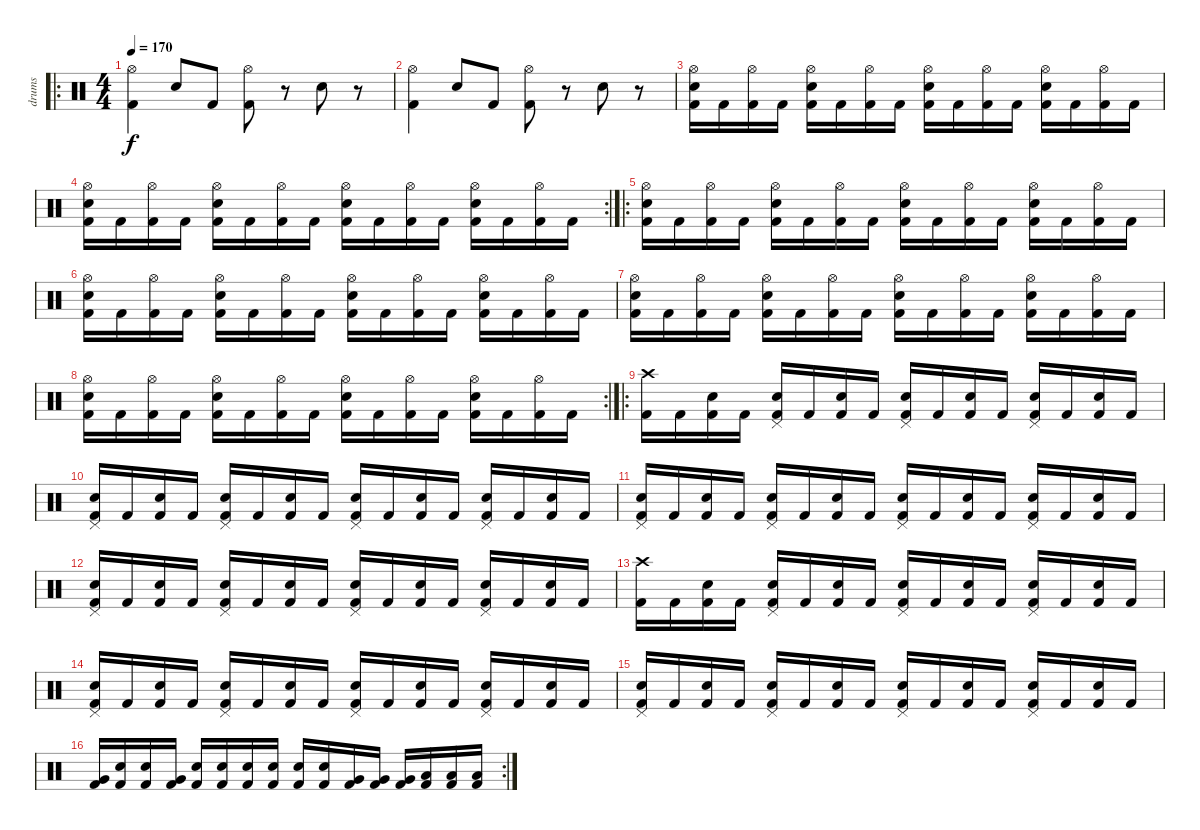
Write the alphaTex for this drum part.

\track ("drums" "drums") {instrument percussion}
\staff {score}
\articulation defaults
\ro
\ts (4 4)
\tempo 170
\clef neutral
\ks c
("Hi-Hat (open)" "Kick (hit) 2").4{dy f} "Electric Snare (hit)".8 "Kick (hit) 2".8 ("Hi-Hat (open)" "Kick (hit) 2").8 r.8 "Electric Snare (hit)".8 r.8 |
("Hi-Hat (open)" "Kick (hit) 2").4 "Electric Snare (hit)".8 "Kick (hit) 2".8 ("Hi-Hat (open)" "Kick (hit) 2").8 r.8 "Electric Snare (hit)".8 r.8 |
("Hi-Hat (open)" "Electric Snare (hit)" "Kick (hit) 2").16 "Kick (hit) 2".16 ("Hi-Hat (open)" "Kick (hit) 2").16 "Kick (hit) 2".16 ("Hi-Hat (open)" "Electric Snare (hit)" "Kick (hit) 2").16 "Kick (hit) 2".16 ("Hi-Hat (open)" "Kick (hit) 2").16 "Kick (hit) 2".16 ("Hi-Hat (open)" "Electric Snare (hit)" "Kick (hit) 2").16 "Kick (hit) 2".16 ("Hi-Hat (open)" "Kick (hit) 2").16 "Kick (hit) 2".16 ("Hi-Hat (open)" "Electric Snare (hit)" "Kick (hit) 2").16 "Kick (hit) 2".16 ("Hi-Hat (open)" "Kick (hit) 2").16 "Kick (hit) 2".16 |
\rc 2
("Hi-Hat (open)" "Electric Snare (hit)" "Kick (hit) 2").16 "Kick (hit) 2".16 ("Hi-Hat (open)" "Kick (hit) 2").16 "Kick (hit) 2".16 ("Hi-Hat (open)" "Electric Snare (hit)" "Kick (hit) 2").16 "Kick (hit) 2".16 ("Hi-Hat (open)" "Kick (hit) 2").16 "Kick (hit) 2".16 ("Hi-Hat (open)" "Electric Snare (hit)" "Kick (hit) 2").16 "Kick (hit) 2".16 ("Hi-Hat (open)" "Kick (hit) 2").16 "Kick (hit) 2".16 ("Hi-Hat (open)" "Electric Snare (hit)" "Kick (hit) 2").16 "Kick (hit) 2".16 ("Hi-Hat (open)" "Kick (hit) 2").16 "Kick (hit) 2".16 |
\ro
("Hi-Hat (open)" "Electric Snare (hit)" "Kick (hit) 2").16 "Kick (hit) 2".16 ("Hi-Hat (open)" "Kick (hit) 2").16 "Kick (hit) 2".16 ("Hi-Hat (open)" "Electric Snare (hit)" "Kick (hit) 2").16 "Kick (hit) 2".16 ("Hi-Hat (open)" "Kick (hit) 2").16 "Kick (hit) 2".16 ("Hi-Hat (open)" "Electric Snare (hit)" "Kick (hit) 2").16 "Kick (hit) 2".16 ("Hi-Hat (open)" "Kick (hit) 2").16 "Kick (hit) 2".16 ("Hi-Hat (open)" "Electric Snare (hit)" "Kick (hit) 2").16 "Kick (hit) 2".16 ("Hi-Hat (open)" "Kick (hit) 2").16 "Kick (hit) 2".16 |
("Hi-Hat (open)" "Electric Snare (hit)" "Kick (hit) 2").16 "Kick (hit) 2".16 ("Hi-Hat (open)" "Kick (hit) 2").16 "Kick (hit) 2".16 ("Hi-Hat (open)" "Electric Snare (hit)" "Kick (hit) 2").16 "Kick (hit) 2".16 ("Hi-Hat (open)" "Kick (hit) 2").16 "Kick (hit) 2".16 ("Hi-Hat (open)" "Electric Snare (hit)" "Kick (hit) 2").16 "Kick (hit) 2".16 ("Hi-Hat (open)" "Kick (hit) 2").16 "Kick (hit) 2".16 ("Hi-Hat (open)" "Electric Snare (hit)" "Kick (hit) 2").16 "Kick (hit) 2".16 ("Hi-Hat (open)" "Kick (hit) 2").16 "Kick (hit) 2".16 |
("Hi-Hat (open)" "Electric Snare (hit)" "Kick (hit) 2").16 "Kick (hit) 2".16 ("Hi-Hat (open)" "Kick (hit) 2").16 "Kick (hit) 2".16 ("Hi-Hat (open)" "Electric Snare (hit)" "Kick (hit) 2").16 "Kick (hit) 2".16 ("Hi-Hat (open)" "Kick (hit) 2").16 "Kick (hit) 2".16 ("Hi-Hat (open)" "Electric Snare (hit)" "Kick (hit) 2").16 "Kick (hit) 2".16 ("Hi-Hat (open)" "Kick (hit) 2").16 "Kick (hit) 2".16 ("Hi-Hat (open)" "Electric Snare (hit)" "Kick (hit) 2").16 "Kick (hit) 2".16 ("Hi-Hat (open)" "Kick (hit) 2").16 "Kick (hit) 2".16 |
\rc 2
("Hi-Hat (open)" "Electric Snare (hit)" "Kick (hit) 2").16 "Kick (hit) 2".16 ("Hi-Hat (open)" "Kick (hit) 2").16 "Kick (hit) 2".16 ("Hi-Hat (open)" "Electric Snare (hit)" "Kick (hit) 2").16 "Kick (hit) 2".16 ("Hi-Hat (open)" "Kick (hit) 2").16 "Kick (hit) 2".16 ("Hi-Hat (open)" "Electric Snare (hit)" "Kick (hit) 2").16 "Kick (hit) 2".16 ("Hi-Hat (open)" "Kick (hit) 2").16 "Kick (hit) 2".16 ("Hi-Hat (open)" "Electric Snare (hit)" "Kick (hit) 2").16 "Kick (hit) 2".16 ("Hi-Hat (open)" "Kick (hit) 2").16 "Kick (hit) 2".16 |
\ro
("Crash high (hit)" "Kick (hit) 2").16 "Kick (hit) 2".16 ("Electric Snare (hit)" "Kick (hit) 2").16 "Kick (hit) 2".16 ("Pedal Hi-Hat (hit)" "Electric Snare (hit)" "Kick (hit) 2").16 "Kick (hit) 2".16 ("Electric Snare (hit)" "Kick (hit) 2").16 "Kick (hit) 2".16 ("Pedal Hi-Hat (hit)" "Electric Snare (hit)" "Kick (hit) 2").16 "Kick (hit) 2".16 ("Electric Snare (hit)" "Kick (hit) 2").16 "Kick (hit) 2".16 ("Pedal Hi-Hat (hit)" "Electric Snare (hit)" "Kick (hit) 2").16 "Kick (hit) 2".16 ("Electric Snare (hit)" "Kick (hit) 2").16 "Kick (hit) 2".16 |
("Pedal Hi-Hat (hit)" "Electric Snare (hit)" "Kick (hit) 2").16 "Kick (hit) 2".16 ("Electric Snare (hit)" "Kick (hit) 2").16 "Kick (hit) 2".16 ("Pedal Hi-Hat (hit)" "Electric Snare (hit)" "Kick (hit) 2").16 "Kick (hit) 2".16 ("Electric Snare (hit)" "Kick (hit) 2").16 "Kick (hit) 2".16 ("Pedal Hi-Hat (hit)" "Electric Snare (hit)" "Kick (hit) 2").16 "Kick (hit) 2".16 ("Electric Snare (hit)" "Kick (hit) 2").16 "Kick (hit) 2".16 ("Pedal Hi-Hat (hit)" "Electric Snare (hit)" "Kick (hit) 2").16 "Kick (hit) 2".16 ("Electric Snare (hit)" "Kick (hit) 2").16 "Kick (hit) 2".16 |
("Pedal Hi-Hat (hit)" "Electric Snare (hit)" "Kick (hit) 2").16 "Kick (hit) 2".16 ("Electric Snare (hit)" "Kick (hit) 2").16 "Kick (hit) 2".16 ("Pedal Hi-Hat (hit)" "Electric Snare (hit)" "Kick (hit) 2").16 "Kick (hit) 2".16 ("Electric Snare (hit)" "Kick (hit) 2").16 "Kick (hit) 2".16 ("Pedal Hi-Hat (hit)" "Electric Snare (hit)" "Kick (hit) 2").16 "Kick (hit) 2".16 ("Electric Snare (hit)" "Kick (hit) 2").16 "Kick (hit) 2".16 ("Pedal Hi-Hat (hit)" "Electric Snare (hit)" "Kick (hit) 2").16 "Kick (hit) 2".16 ("Electric Snare (hit)" "Kick (hit) 2").16 "Kick (hit) 2".16 |
("Pedal Hi-Hat (hit)" "Electric Snare (hit)" "Kick (hit) 2").16 "Kick (hit) 2".16 ("Electric Snare (hit)" "Kick (hit) 2").16 "Kick (hit) 2".16 ("Pedal Hi-Hat (hit)" "Electric Snare (hit)" "Kick (hit) 2").16 "Kick (hit) 2".16 ("Electric Snare (hit)" "Kick (hit) 2").16 "Kick (hit) 2".16 ("Pedal Hi-Hat (hit)" "Electric Snare (hit)" "Kick (hit) 2").16 "Kick (hit) 2".16 ("Electric Snare (hit)" "Kick (hit) 2").16 "Kick (hit) 2".16 ("Pedal Hi-Hat (hit)" "Electric Snare (hit)" "Kick (hit) 2").16 "Kick (hit) 2".16 ("Electric Snare (hit)" "Kick (hit) 2").16 "Kick (hit) 2".16 |
("Crash high (hit)" "Kick (hit) 2").16 "Kick (hit) 2".16 ("Electric Snare (hit)" "Kick (hit) 2").16 "Kick (hit) 2".16 ("Pedal Hi-Hat (hit)" "Electric Snare (hit)" "Kick (hit) 2").16 "Kick (hit) 2".16 ("Electric Snare (hit)" "Kick (hit) 2").16 "Kick (hit) 2".16 ("Pedal Hi-Hat (hit)" "Electric Snare (hit)" "Kick (hit) 2").16 "Kick (hit) 2".16 ("Electric Snare (hit)" "Kick (hit) 2").16 "Kick (hit) 2".16 ("Pedal Hi-Hat (hit)" "Electric Snare (hit)" "Kick (hit) 2").16 "Kick (hit) 2".16 ("Electric Snare (hit)" "Kick (hit) 2").16 "Kick (hit) 2".16 |
("Pedal Hi-Hat (hit)" "Electric Snare (hit)" "Kick (hit) 2").16 "Kick (hit) 2".16 ("Electric Snare (hit)" "Kick (hit) 2").16 "Kick (hit) 2".16 ("Pedal Hi-Hat (hit)" "Electric Snare (hit)" "Kick (hit) 2").16 "Kick (hit) 2".16 ("Electric Snare (hit)" "Kick (hit) 2").16 "Kick (hit) 2".16 ("Pedal Hi-Hat (hit)" "Electric Snare (hit)" "Kick (hit) 2").16 "Kick (hit) 2".16 ("Electric Snare (hit)" "Kick (hit) 2").16 "Kick (hit) 2".16 ("Pedal Hi-Hat (hit)" "Electric Snare (hit)" "Kick (hit) 2").16 "Kick (hit) 2".16 ("Electric Snare (hit)" "Kick (hit) 2").16 "Kick (hit) 2".16 |
("Pedal Hi-Hat (hit)" "Electric Snare (hit)" "Kick (hit) 2").16 "Kick (hit) 2".16 ("Electric Snare (hit)" "Kick (hit) 2").16 "Kick (hit) 2".16 ("Pedal Hi-Hat (hit)" "Electric Snare (hit)" "Kick (hit) 2").16 "Kick (hit) 2".16 ("Electric Snare (hit)" "Kick (hit) 2").16 "Kick (hit) 2".16 ("Pedal Hi-Hat (hit)" "Electric Snare (hit)" "Kick (hit) 2").16 "Kick (hit) 2".16 ("Electric Snare (hit)" "Kick (hit) 2").16 "Kick (hit) 2".16 ("Pedal Hi-Hat (hit)" "Electric Snare (hit)" "Kick (hit) 2").16 "Kick (hit) 2".16 ("Electric Snare (hit)" "Kick (hit) 2").16 "Kick (hit) 2".16 |
\rc 2
("Very Low Tom (hit)" "Kick (hit) 2").16 ("Electric Snare (hit)" "Kick (hit) 2").16 ("Electric Snare (hit)" "Kick (hit) 2").16 ("Very Low Tom (hit)" "Kick (hit) 2").16 ("Electric Snare (hit)" "Kick (hit) 2").16 ("Electric Snare (hit)" "Kick (hit) 2").16 ("Electric Snare (hit)" "Kick (hit) 2").16 ("Electric Snare (hit)" "Kick (hit) 2").16 ("Electric Snare (hit)" "Kick (hit) 2").16 ("Electric Snare (hit)" "Kick (hit) 2").16 ("Very Low Tom (hit)" "Kick (hit) 2").16 ("Very Low Tom (hit)" "Kick (hit) 2").16 ("Very Low Tom (hit)" "Kick (hit) 2").16 ("Low Floor Tom (hit)" "Kick (hit) 2").16 ("Low Floor Tom (hit)" "Kick (hit) 2").16 ("Low Floor Tom (hit)" "Kick (hit) 2").16
